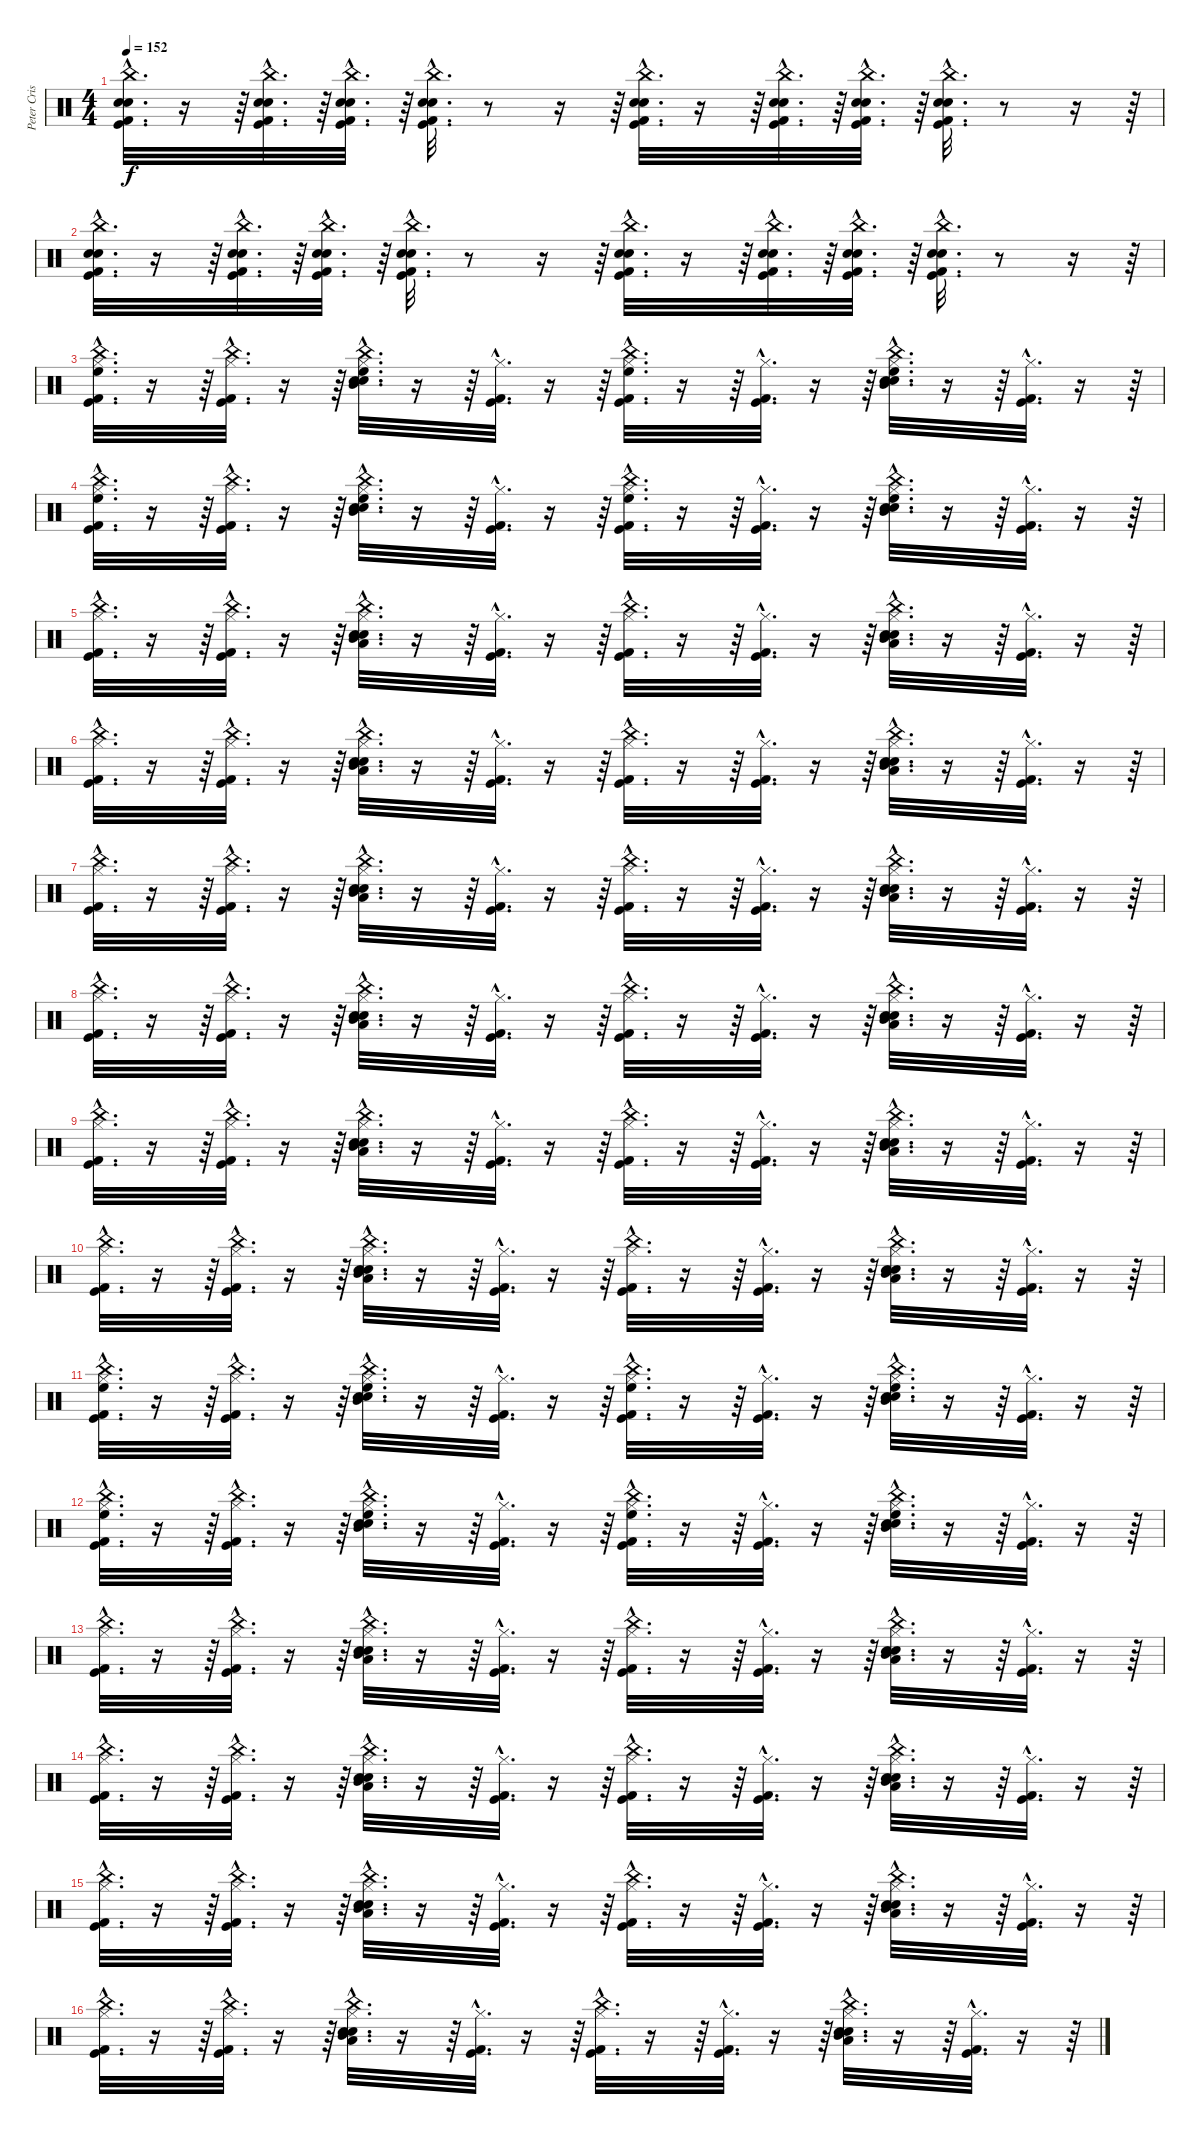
\track ("Peter Criss" "Peter Cris") {instrument percussion}
\staff {score}
\articulation defaults
\ts (4 4)
\tempo 152
\clef neutral
\ks c
("Electric Snare (hit)"{hac} "Snare (hit) 2"{hac} "Kick (hit) 2"{hac} "Kick (hit)"{hac} "China (hit)"{hac}).32{d dy f} r.16 r.64 ("Electric Snare (hit)"{hac} "Snare (hit) 2"{hac} "Kick (hit) 2"{hac} "Kick (hit)"{hac} "China (hit)"{hac}).32{d} r.64 ("Electric Snare (hit)"{hac} "Snare (hit) 2"{hac} "Kick (hit) 2"{hac} "Kick (hit)"{hac} "China (hit)"{hac}).32{d} r.64 ("Electric Snare (hit)"{hac} "Snare (hit) 2"{hac} "Kick (hit) 2"{hac} "Kick (hit)"{hac} "China (hit)"{hac}).32{d} r.8 r.16 r.64 ("Electric Snare (hit)"{hac} "Snare (hit) 2"{hac} "Kick (hit) 2"{hac} "Kick (hit)"{hac} "China (hit)"{hac}).32{d} r.16 r.64 ("Electric Snare (hit)"{hac} "Snare (hit) 2"{hac} "Kick (hit) 2"{hac} "Kick (hit)"{hac} "China (hit)"{hac}).32{d} r.64 ("Electric Snare (hit)"{hac} "Snare (hit) 2"{hac} "Kick (hit) 2"{hac} "Kick (hit)"{hac} "China (hit)"{hac}).32{d} r.64 ("Electric Snare (hit)"{hac} "Snare (hit) 2"{hac} "Kick (hit) 2"{hac} "Kick (hit)"{hac} "China (hit)"{hac}).32{d} r.8 r.16 r.64 |
("Electric Snare (hit)"{hac} "Snare (hit) 2"{hac} "Kick (hit) 2"{hac} "Kick (hit)"{hac} "China (hit)"{hac}).32{d} r.16 r.64 ("Electric Snare (hit)"{hac} "Snare (hit) 2"{hac} "Kick (hit) 2"{hac} "Kick (hit)"{hac} "China (hit)"{hac}).32{d} r.64 ("Electric Snare (hit)"{hac} "Snare (hit) 2"{hac} "Kick (hit) 2"{hac} "Kick (hit)"{hac} "China (hit)"{hac}).32{d} r.64 ("Electric Snare (hit)"{hac} "Snare (hit) 2"{hac} "Kick (hit) 2"{hac} "Kick (hit)"{hac} "China (hit)"{hac}).32{d} r.8 r.16 r.64 ("Electric Snare (hit)"{hac} "Snare (hit) 2"{hac} "Kick (hit) 2"{hac} "Kick (hit)"{hac} "China (hit)"{hac}).32{d} r.16 r.64 ("Electric Snare (hit)"{hac} "Snare (hit) 2"{hac} "Kick (hit) 2"{hac} "Kick (hit)"{hac} "China (hit)"{hac}).32{d} r.64 ("Electric Snare (hit)"{hac} "Snare (hit) 2"{hac} "Kick (hit) 2"{hac} "Kick (hit)"{hac} "China (hit)"{hac}).32{d} r.64 ("Electric Snare (hit)"{hac} "Snare (hit) 2"{hac} "Kick (hit) 2"{hac} "Kick (hit)"{hac} "China (hit)"{hac}).32{d} r.8 r.16 r.64 |
("China (hit)"{hac} "Kick (hit) 2"{hac} "Kick (hit)"{hac} "Hi-Hat (closed)"{hac} "High Floor Tom (hit)"{hac}).32{d} r.16 r.64 ("Kick (hit)"{hac} "Kick (hit) 2"{hac} "China (hit)"{hac} "Hi-Hat (closed)"{hac}).32{d} r.16 r.64 ("China (hit)"{hac} "Electric Snare (hit)"{hac} "Snare (hit) 2"{hac} "Hi-Hat (closed)"{hac} "Mid Tom (hit)"{hac} "High Floor Tom (hit)"{hac}).32{d} r.16 r.64 ("Kick (hit) 2"{hac} "Kick (hit)"{hac} "Hi-Hat (closed)"{hac}).32{d} r.16 r.64 ("China (hit)"{hac} "Kick (hit)"{hac} "Kick (hit) 2"{hac} "Hi-Hat (closed)"{hac} "High Floor Tom (hit)"{hac}).32{d} r.16 r.64 ("Kick (hit) 2"{hac} "Kick (hit)"{hac} "Hi-Hat (closed)"{hac}).32{d} r.16 r.64 ("China (hit)"{hac} "Electric Snare (hit)"{hac} "Snare (hit) 2"{hac} "Hi-Hat (closed)"{hac} "Mid Tom (hit)"{hac} "High Floor Tom (hit)"{hac}).32{d} r.16 r.64 ("Kick (hit) 2"{hac} "Kick (hit)"{hac} "Hi-Hat (closed)"{hac}).32{d} r.16 r.64 |
("China (hit)"{hac} "Kick (hit) 2"{hac} "Kick (hit)"{hac} "Hi-Hat (closed)"{hac} "High Floor Tom (hit)"{hac}).32{d} r.16 r.64 ("Kick (hit)"{hac} "Kick (hit) 2"{hac} "China (hit)"{hac} "Hi-Hat (closed)"{hac}).32{d} r.16 r.64 ("China (hit)"{hac} "Electric Snare (hit)"{hac} "Snare (hit) 2"{hac} "Hi-Hat (closed)"{hac} "Mid Tom (hit)"{hac} "High Floor Tom (hit)"{hac}).32{d} r.16 r.64 ("Kick (hit) 2"{hac} "Kick (hit)"{hac} "Hi-Hat (closed)"{hac}).32{d} r.16 r.64 ("China (hit)"{hac} "Kick (hit)"{hac} "Kick (hit) 2"{hac} "Hi-Hat (closed)"{hac} "High Floor Tom (hit)"{hac}).32{d} r.16 r.64 ("Kick (hit) 2"{hac} "Kick (hit)"{hac} "Hi-Hat (closed)"{hac}).32{d} r.16 r.64 ("China (hit)"{hac} "Electric Snare (hit)"{hac} "Snare (hit) 2"{hac} "Hi-Hat (closed)"{hac} "Mid Tom (hit)"{hac} "High Floor Tom (hit)"{hac}).32{d} r.16 r.64 ("Kick (hit) 2"{hac} "Kick (hit)"{hac} "Hi-Hat (closed)"{hac}).32{d} r.16 r.64 |
("China (hit)"{hac} "Kick (hit) 2"{hac} "Kick (hit)"{hac} "Hi-Hat (closed)"{hac}).32{d} r.16 r.64 ("Kick (hit)"{hac} "Kick (hit) 2"{hac} "China (hit)"{hac} "Hi-Hat (closed)"{hac}).32{d} r.16 r.64 ("China (hit)"{hac} "Electric Snare (hit)"{hac} "Snare (hit) 2"{hac} "Hi-Hat (closed)"{hac} "Mid Tom (hit)"{hac} "Low Tom (hit)"{hac}).32{d} r.16 r.64 ("Kick (hit) 2"{hac} "Kick (hit)"{hac} "Hi-Hat (closed)"{hac}).32{d} r.16 r.64 ("China (hit)"{hac} "Kick (hit)"{hac} "Kick (hit) 2"{hac} "Hi-Hat (closed)"{hac}).32{d} r.16 r.64 ("Kick (hit) 2"{hac} "Kick (hit)"{hac} "Hi-Hat (closed)"{hac}).32{d} r.16 r.64 ("China (hit)"{hac} "Electric Snare (hit)"{hac} "Snare (hit) 2"{hac} "Hi-Hat (closed)"{hac} "Mid Tom (hit)"{hac} "Low Tom (hit)"{hac}).32{d} r.16 r.64 ("Kick (hit) 2"{hac} "Kick (hit)"{hac} "Hi-Hat (closed)"{hac}).32{d} r.16 r.64 |
("China (hit)"{hac} "Kick (hit) 2"{hac} "Kick (hit)"{hac} "Hi-Hat (closed)"{hac}).32{d} r.16 r.64 ("Kick (hit)"{hac} "Kick (hit) 2"{hac} "China (hit)"{hac} "Hi-Hat (closed)"{hac}).32{d} r.16 r.64 ("China (hit)"{hac} "Electric Snare (hit)"{hac} "Snare (hit) 2"{hac} "Hi-Hat (closed)"{hac} "Mid Tom (hit)"{hac} "Low Tom (hit)"{hac}).32{d} r.16 r.64 ("Kick (hit) 2"{hac} "Kick (hit)"{hac} "Hi-Hat (closed)"{hac}).32{d} r.16 r.64 ("China (hit)"{hac} "Kick (hit)"{hac} "Kick (hit) 2"{hac} "Hi-Hat (closed)"{hac}).32{d} r.16 r.64 ("Kick (hit) 2"{hac} "Kick (hit)"{hac} "Hi-Hat (closed)"{hac}).32{d} r.16 r.64 ("China (hit)"{hac} "Electric Snare (hit)"{hac} "Snare (hit) 2"{hac} "Hi-Hat (closed)"{hac} "Mid Tom (hit)"{hac} "Low Tom (hit)"{hac}).32{d} r.16 r.64 ("Kick (hit) 2"{hac} "Kick (hit)"{hac} "Hi-Hat (closed)"{hac}).32{d} r.16 r.64 |
("China (hit)"{hac} "Kick (hit) 2"{hac} "Kick (hit)"{hac} "Hi-Hat (closed)"{hac}).32{d} r.16 r.64 ("Kick (hit)"{hac} "Kick (hit) 2"{hac} "China (hit)"{hac} "Hi-Hat (closed)"{hac}).32{d} r.16 r.64 ("China (hit)"{hac} "Electric Snare (hit)"{hac} "Snare (hit) 2"{hac} "Hi-Hat (closed)"{hac} "Mid Tom (hit)"{hac} "Low Tom (hit)"{hac}).32{d} r.16 r.64 ("Kick (hit) 2"{hac} "Kick (hit)"{hac} "Hi-Hat (closed)"{hac}).32{d} r.16 r.64 ("China (hit)"{hac} "Kick (hit)"{hac} "Kick (hit) 2"{hac} "Hi-Hat (closed)"{hac}).32{d} r.16 r.64 ("Kick (hit) 2"{hac} "Kick (hit)"{hac} "Hi-Hat (closed)"{hac}).32{d} r.16 r.64 ("China (hit)"{hac} "Electric Snare (hit)"{hac} "Snare (hit) 2"{hac} "Hi-Hat (closed)"{hac} "Mid Tom (hit)"{hac} "Low Tom (hit)"{hac}).32{d} r.16 r.64 ("Kick (hit) 2"{hac} "Kick (hit)"{hac} "Hi-Hat (closed)"{hac}).32{d} r.16 r.64 |
("China (hit)"{hac} "Kick (hit) 2"{hac} "Kick (hit)"{hac} "Hi-Hat (closed)"{hac}).32{d} r.16 r.64 ("Kick (hit)"{hac} "Kick (hit) 2"{hac} "China (hit)"{hac} "Hi-Hat (closed)"{hac}).32{d} r.16 r.64 ("China (hit)"{hac} "Electric Snare (hit)"{hac} "Snare (hit) 2"{hac} "Hi-Hat (closed)"{hac} "Mid Tom (hit)"{hac} "Low Tom (hit)"{hac}).32{d} r.16 r.64 ("Kick (hit) 2"{hac} "Kick (hit)"{hac} "Hi-Hat (closed)"{hac}).32{d} r.16 r.64 ("China (hit)"{hac} "Kick (hit)"{hac} "Kick (hit) 2"{hac} "Hi-Hat (closed)"{hac}).32{d} r.16 r.64 ("Kick (hit) 2"{hac} "Kick (hit)"{hac} "Hi-Hat (closed)"{hac}).32{d} r.16 r.64 ("China (hit)"{hac} "Electric Snare (hit)"{hac} "Snare (hit) 2"{hac} "Hi-Hat (closed)"{hac} "Mid Tom (hit)"{hac} "Low Tom (hit)"{hac}).32{d} r.16 r.64 ("Kick (hit) 2"{hac} "Kick (hit)"{hac} "Hi-Hat (closed)"{hac}).32{d} r.16 r.64 |
("China (hit)"{hac} "Kick (hit) 2"{hac} "Kick (hit)"{hac} "Hi-Hat (closed)"{hac}).32{d} r.16 r.64 ("Kick (hit)"{hac} "Kick (hit) 2"{hac} "China (hit)"{hac} "Hi-Hat (closed)"{hac}).32{d} r.16 r.64 ("China (hit)"{hac} "Electric Snare (hit)"{hac} "Snare (hit) 2"{hac} "Hi-Hat (closed)"{hac} "Mid Tom (hit)"{hac} "Low Tom (hit)"{hac}).32{d} r.16 r.64 ("Kick (hit) 2"{hac} "Kick (hit)"{hac} "Hi-Hat (closed)"{hac}).32{d} r.16 r.64 ("China (hit)"{hac} "Kick (hit)"{hac} "Kick (hit) 2"{hac} "Hi-Hat (closed)"{hac}).32{d} r.16 r.64 ("Kick (hit) 2"{hac} "Kick (hit)"{hac} "Hi-Hat (closed)"{hac}).32{d} r.16 r.64 ("China (hit)"{hac} "Electric Snare (hit)"{hac} "Snare (hit) 2"{hac} "Hi-Hat (closed)"{hac} "Mid Tom (hit)"{hac} "Low Tom (hit)"{hac}).32{d} r.16 r.64 ("Kick (hit) 2"{hac} "Kick (hit)"{hac} "Hi-Hat (closed)"{hac}).32{d} r.16 r.64 |
("China (hit)"{hac} "Kick (hit) 2"{hac} "Kick (hit)"{hac} "Hi-Hat (closed)"{hac}).32{d} r.16 r.64 ("Kick (hit)"{hac} "Kick (hit) 2"{hac} "China (hit)"{hac} "Hi-Hat (closed)"{hac}).32{d} r.16 r.64 ("China (hit)"{hac} "Electric Snare (hit)"{hac} "Snare (hit) 2"{hac} "Hi-Hat (closed)"{hac} "Mid Tom (hit)"{hac} "Low Tom (hit)"{hac}).32{d} r.16 r.64 ("Kick (hit) 2"{hac} "Kick (hit)"{hac} "Hi-Hat (closed)"{hac}).32{d} r.16 r.64 ("China (hit)"{hac} "Kick (hit)"{hac} "Kick (hit) 2"{hac} "Hi-Hat (closed)"{hac}).32{d} r.16 r.64 ("Kick (hit) 2"{hac} "Kick (hit)"{hac} "Hi-Hat (closed)"{hac}).32{d} r.16 r.64 ("China (hit)"{hac} "Electric Snare (hit)"{hac} "Snare (hit) 2"{hac} "Hi-Hat (closed)"{hac} "Mid Tom (hit)"{hac} "Low Tom (hit)"{hac}).32{d} r.16 r.64 ("Kick (hit) 2"{hac} "Kick (hit)"{hac} "Hi-Hat (closed)"{hac}).32{d} r.16 r.64 |
("China (hit)"{hac} "Kick (hit) 2"{hac} "Kick (hit)"{hac} "Hi-Hat (closed)"{hac} "High Floor Tom (hit)"{hac}).32{d} r.16 r.64 ("Kick (hit)"{hac} "Kick (hit) 2"{hac} "China (hit)"{hac} "Hi-Hat (closed)"{hac}).32{d} r.16 r.64 ("China (hit)"{hac} "Electric Snare (hit)"{hac} "Snare (hit) 2"{hac} "Hi-Hat (closed)"{hac} "Mid Tom (hit)"{hac} "High Floor Tom (hit)"{hac}).32{d} r.16 r.64 ("Kick (hit) 2"{hac} "Kick (hit)"{hac} "Hi-Hat (closed)"{hac}).32{d} r.16 r.64 ("China (hit)"{hac} "Kick (hit)"{hac} "Kick (hit) 2"{hac} "Hi-Hat (closed)"{hac} "High Floor Tom (hit)"{hac}).32{d} r.16 r.64 ("Kick (hit) 2"{hac} "Kick (hit)"{hac} "Hi-Hat (closed)"{hac}).32{d} r.16 r.64 ("China (hit)"{hac} "Electric Snare (hit)"{hac} "Snare (hit) 2"{hac} "Hi-Hat (closed)"{hac} "Mid Tom (hit)"{hac} "High Floor Tom (hit)"{hac}).32{d} r.16 r.64 ("Kick (hit) 2"{hac} "Kick (hit)"{hac} "Hi-Hat (closed)"{hac}).32{d} r.16 r.64 |
("China (hit)"{hac} "Kick (hit) 2"{hac} "Kick (hit)"{hac} "Hi-Hat (closed)"{hac} "High Floor Tom (hit)"{hac}).32{d} r.16 r.64 ("Kick (hit)"{hac} "Kick (hit) 2"{hac} "China (hit)"{hac} "Hi-Hat (closed)"{hac}).32{d} r.16 r.64 ("China (hit)"{hac} "Electric Snare (hit)"{hac} "Snare (hit) 2"{hac} "Hi-Hat (closed)"{hac} "Mid Tom (hit)"{hac} "High Floor Tom (hit)"{hac}).32{d} r.16 r.64 ("Kick (hit) 2"{hac} "Kick (hit)"{hac} "Hi-Hat (closed)"{hac}).32{d} r.16 r.64 ("China (hit)"{hac} "Kick (hit)"{hac} "Kick (hit) 2"{hac} "Hi-Hat (closed)"{hac} "High Floor Tom (hit)"{hac}).32{d} r.16 r.64 ("Kick (hit) 2"{hac} "Kick (hit)"{hac} "Hi-Hat (closed)"{hac}).32{d} r.16 r.64 ("China (hit)"{hac} "Electric Snare (hit)"{hac} "Snare (hit) 2"{hac} "Hi-Hat (closed)"{hac} "Mid Tom (hit)"{hac} "High Floor Tom (hit)"{hac}).32{d} r.16 r.64 ("Kick (hit) 2"{hac} "Kick (hit)"{hac} "Hi-Hat (closed)"{hac}).32{d} r.16 r.64 |
("China (hit)"{hac} "Kick (hit) 2"{hac} "Kick (hit)"{hac} "Hi-Hat (closed)"{hac}).32{d} r.16 r.64 ("Kick (hit)"{hac} "Kick (hit) 2"{hac} "China (hit)"{hac} "Hi-Hat (closed)"{hac}).32{d} r.16 r.64 ("China (hit)"{hac} "Electric Snare (hit)"{hac} "Snare (hit) 2"{hac} "Hi-Hat (closed)"{hac} "Mid Tom (hit)"{hac} "Low Tom (hit)"{hac}).32{d} r.16 r.64 ("Kick (hit) 2"{hac} "Kick (hit)"{hac} "Hi-Hat (closed)"{hac}).32{d} r.16 r.64 ("China (hit)"{hac} "Kick (hit)"{hac} "Kick (hit) 2"{hac} "Hi-Hat (closed)"{hac}).32{d} r.16 r.64 ("Kick (hit) 2"{hac} "Kick (hit)"{hac} "Hi-Hat (closed)"{hac}).32{d} r.16 r.64 ("China (hit)"{hac} "Electric Snare (hit)"{hac} "Snare (hit) 2"{hac} "Hi-Hat (closed)"{hac} "Mid Tom (hit)"{hac} "Low Tom (hit)"{hac}).32{d} r.16 r.64 ("Kick (hit) 2"{hac} "Kick (hit)"{hac} "Hi-Hat (closed)"{hac}).32{d} r.16 r.64 |
("China (hit)"{hac} "Kick (hit) 2"{hac} "Kick (hit)"{hac} "Hi-Hat (closed)"{hac}).32{d} r.16 r.64 ("Kick (hit)"{hac} "Kick (hit) 2"{hac} "China (hit)"{hac} "Hi-Hat (closed)"{hac}).32{d} r.16 r.64 ("China (hit)"{hac} "Electric Snare (hit)"{hac} "Snare (hit) 2"{hac} "Hi-Hat (closed)"{hac} "Mid Tom (hit)"{hac} "Low Tom (hit)"{hac}).32{d} r.16 r.64 ("Kick (hit) 2"{hac} "Kick (hit)"{hac} "Hi-Hat (closed)"{hac}).32{d} r.16 r.64 ("China (hit)"{hac} "Kick (hit)"{hac} "Kick (hit) 2"{hac} "Hi-Hat (closed)"{hac}).32{d} r.16 r.64 ("Kick (hit) 2"{hac} "Kick (hit)"{hac} "Hi-Hat (closed)"{hac}).32{d} r.16 r.64 ("China (hit)"{hac} "Electric Snare (hit)"{hac} "Snare (hit) 2"{hac} "Hi-Hat (closed)"{hac} "Mid Tom (hit)"{hac} "Low Tom (hit)"{hac}).32{d} r.16 r.64 ("Kick (hit) 2"{hac} "Kick (hit)"{hac} "Hi-Hat (closed)"{hac}).32{d} r.16 r.64 |
("China (hit)"{hac} "Kick (hit) 2"{hac} "Kick (hit)"{hac} "Hi-Hat (closed)"{hac}).32{d} r.16 r.64 ("Kick (hit)"{hac} "Kick (hit) 2"{hac} "China (hit)"{hac} "Hi-Hat (closed)"{hac}).32{d} r.16 r.64 ("China (hit)"{hac} "Electric Snare (hit)"{hac} "Snare (hit) 2"{hac} "Hi-Hat (closed)"{hac} "Mid Tom (hit)"{hac} "Low Tom (hit)"{hac}).32{d} r.16 r.64 ("Kick (hit) 2"{hac} "Kick (hit)"{hac} "Hi-Hat (closed)"{hac}).32{d} r.16 r.64 ("China (hit)"{hac} "Kick (hit)"{hac} "Kick (hit) 2"{hac} "Hi-Hat (closed)"{hac}).32{d} r.16 r.64 ("Kick (hit) 2"{hac} "Kick (hit)"{hac} "Hi-Hat (closed)"{hac}).32{d} r.16 r.64 ("China (hit)"{hac} "Electric Snare (hit)"{hac} "Snare (hit) 2"{hac} "Hi-Hat (closed)"{hac} "Mid Tom (hit)"{hac} "Low Tom (hit)"{hac}).32{d} r.16 r.64 ("Kick (hit) 2"{hac} "Kick (hit)"{hac} "Hi-Hat (closed)"{hac}).32{d} r.16 r.64 |
("China (hit)"{hac} "Kick (hit) 2"{hac} "Kick (hit)"{hac} "Hi-Hat (closed)"{hac}).32{d} r.16 r.64 ("Kick (hit)"{hac} "Kick (hit) 2"{hac} "China (hit)"{hac} "Hi-Hat (closed)"{hac}).32{d} r.16 r.64 ("China (hit)"{hac} "Electric Snare (hit)"{hac} "Snare (hit) 2"{hac} "Hi-Hat (closed)"{hac} "Mid Tom (hit)"{hac} "Low Tom (hit)"{hac}).32{d} r.16 r.64 ("Kick (hit) 2"{hac} "Kick (hit)"{hac} "Hi-Hat (closed)"{hac}).32{d} r.16 r.64 ("China (hit)"{hac} "Kick (hit)"{hac} "Kick (hit) 2"{hac} "Hi-Hat (closed)"{hac}).32{d} r.16 r.64 ("Kick (hit) 2"{hac} "Kick (hit)"{hac} "Hi-Hat (closed)"{hac}).32{d} r.16 r.64 ("China (hit)"{hac} "Electric Snare (hit)"{hac} "Snare (hit) 2"{hac} "Hi-Hat (closed)"{hac} "Mid Tom (hit)"{hac} "Low Tom (hit)"{hac}).32{d} r.16 r.64 ("Kick (hit) 2"{hac} "Kick (hit)"{hac} "Hi-Hat (closed)"{hac}).32{d} r.16 r.64
